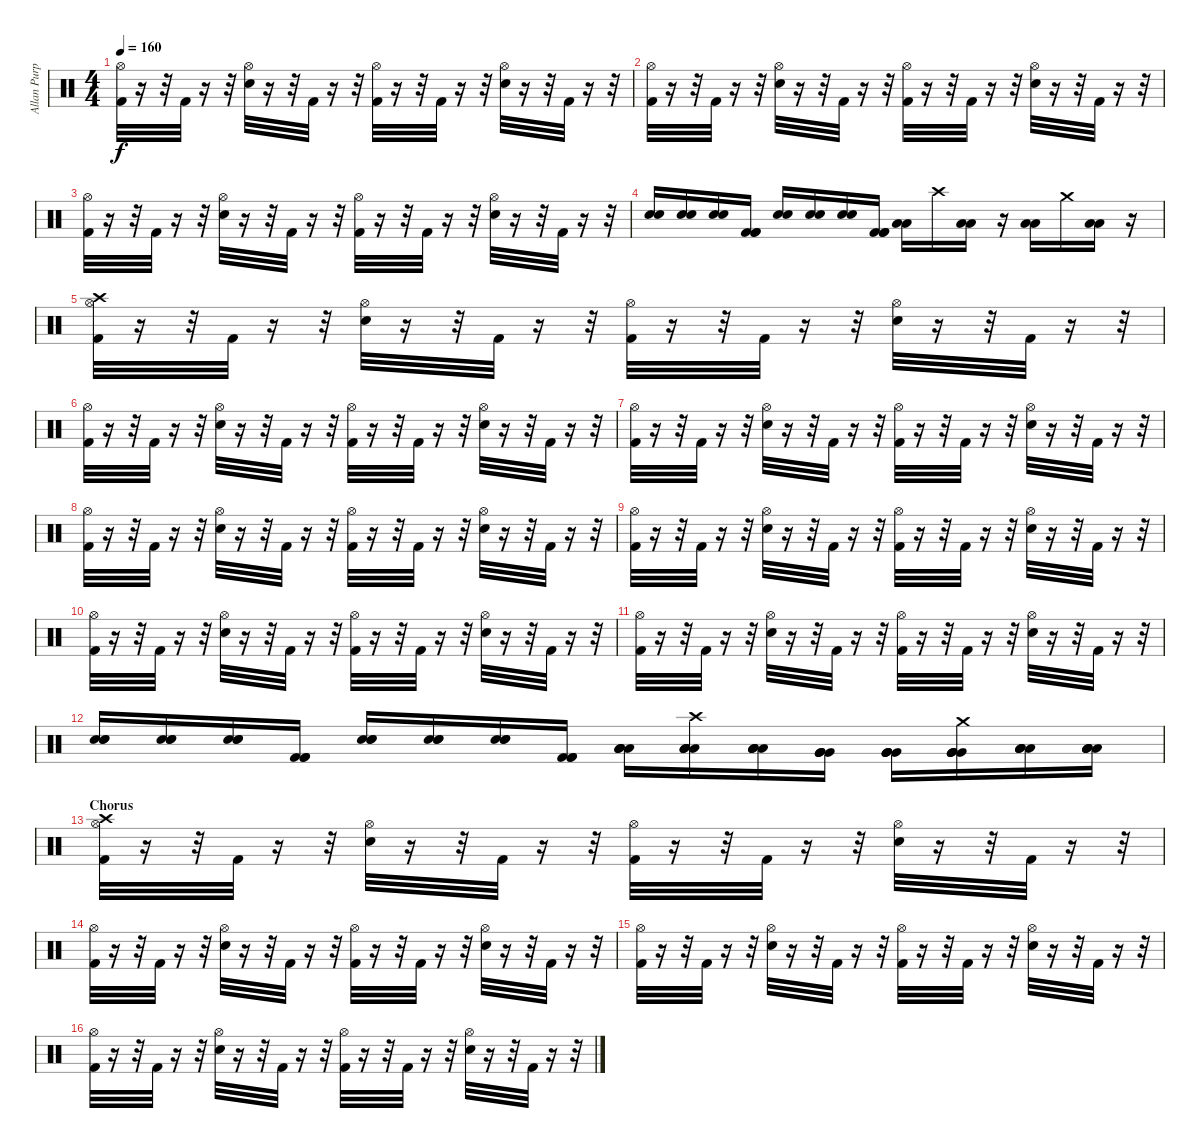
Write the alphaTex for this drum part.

\track ("Allan Purple" "Allan Purp") {instrument percussion}
\staff {score}
\articulation defaults
\ts (4 4)
\tempo 160
\clef neutral
\ks c
("Hi-Hat (open)" "Kick (hit) 2").32{dy f} r.16 r.32 "Kick (hit) 2".32 r.16 r.32 ("Hi-Hat (open)" "Electric Snare (hit)").32 r.16 r.32 "Kick (hit) 2".32 r.16 r.32 ("Hi-Hat (open)" "Kick (hit) 2").32 r.16 r.32 "Kick (hit) 2".32 r.16 r.32 ("Hi-Hat (open)" "Electric Snare (hit)").32 r.16 r.32 "Kick (hit) 2".32 r.16 r.32 |
("Hi-Hat (open)" "Kick (hit) 2").32 r.16 r.32 "Kick (hit) 2".32 r.16 r.32 ("Hi-Hat (open)" "Electric Snare (hit)").32 r.16 r.32 "Kick (hit) 2".32 r.16 r.32 ("Hi-Hat (open)" "Kick (hit) 2").32 r.16 r.32 "Kick (hit) 2".32 r.16 r.32 ("Hi-Hat (open)" "Electric Snare (hit)").32 r.16 r.32 "Kick (hit) 2".32 r.16 r.32 |
("Hi-Hat (open)" "Kick (hit) 2").32 r.16 r.32 "Kick (hit) 2".32 r.16 r.32 ("Hi-Hat (open)" "Electric Snare (hit)").32 r.16 r.32 "Kick (hit) 2".32 r.16 r.32 ("Hi-Hat (open)" "Kick (hit) 2").32 r.16 r.32 "Kick (hit) 2".32 r.16 r.32 ("Hi-Hat (open)" "Electric Snare (hit)").32 r.16 r.32 "Kick (hit) 2".32 r.16 r.32 |
("Electric Snare (hit)" "Electric Snare (hit)").16 ("Electric Snare (hit)" "Electric Snare (hit)").16 ("Electric Snare (hit)" "Electric Snare (hit)").16 ("Kick (hit) 2" "Kick (hit) 2" "Kick (hit) 2").16 ("Electric Snare (hit)" "Electric Snare (hit)").16 ("Electric Snare (hit)" "Electric Snare (hit)").16 ("Electric Snare (hit)" "Electric Snare (hit)").16 ("Kick (hit) 2" "Kick (hit) 2" "Kick (hit) 2").16 ("Low Tom (hit)" "Low Tom (hit)").16 "Crash high (hit)".16 ("Low Tom (hit)" "Low Tom (hit)").16 r.16 ("Low Tom (hit)" "Low Tom (hit)").16 "Crash medium (hit)".16 ("Low Tom (hit)" "Low Tom (hit)").16 r.16 |
("Crash high (hit)" "Hi-Hat (open)" "Kick (hit) 2").32 r.16 r.32 "Kick (hit) 2".32 r.16 r.32 ("Hi-Hat (open)" "Electric Snare (hit)").32 r.16 r.32 "Kick (hit) 2".32 r.16 r.32 ("Hi-Hat (open)" "Kick (hit) 2").32 r.16 r.32 "Kick (hit) 2".32 r.16 r.32 ("Hi-Hat (open)" "Electric Snare (hit)").32 r.16 r.32 "Kick (hit) 2".32 r.16 r.32 |
("Hi-Hat (open)" "Kick (hit) 2").32 r.16 r.32 "Kick (hit) 2".32 r.16 r.32 ("Hi-Hat (open)" "Electric Snare (hit)").32 r.16 r.32 "Kick (hit) 2".32 r.16 r.32 ("Hi-Hat (open)" "Kick (hit) 2").32 r.16 r.32 "Kick (hit) 2".32 r.16 r.32 ("Hi-Hat (open)" "Electric Snare (hit)").32 r.16 r.32 "Kick (hit) 2".32 r.16 r.32 |
("Hi-Hat (open)" "Kick (hit) 2").32 r.16 r.32 "Kick (hit) 2".32 r.16 r.32 ("Hi-Hat (open)" "Electric Snare (hit)").32 r.16 r.32 "Kick (hit) 2".32 r.16 r.32 ("Hi-Hat (open)" "Kick (hit) 2").32 r.16 r.32 "Kick (hit) 2".32 r.16 r.32 ("Hi-Hat (open)" "Electric Snare (hit)").32 r.16 r.32 "Kick (hit) 2".32 r.16 r.32 |
("Hi-Hat (open)" "Kick (hit) 2").32 r.16 r.32 "Kick (hit) 2".32 r.16 r.32 ("Hi-Hat (open)" "Electric Snare (hit)").32 r.16 r.32 "Kick (hit) 2".32 r.16 r.32 ("Hi-Hat (open)" "Kick (hit) 2").32 r.16 r.32 "Kick (hit) 2".32 r.16 r.32 ("Hi-Hat (open)" "Electric Snare (hit)").32 r.16 r.32 "Kick (hit) 2".32 r.16 r.32 |
("Hi-Hat (open)" "Kick (hit) 2").32 r.16 r.32 "Kick (hit) 2".32 r.16 r.32 ("Hi-Hat (open)" "Electric Snare (hit)").32 r.16 r.32 "Kick (hit) 2".32 r.16 r.32 ("Hi-Hat (open)" "Kick (hit) 2").32 r.16 r.32 "Kick (hit) 2".32 r.16 r.32 ("Hi-Hat (open)" "Electric Snare (hit)").32 r.16 r.32 "Kick (hit) 2".32 r.16 r.32 |
("Hi-Hat (open)" "Kick (hit) 2").32 r.16 r.32 "Kick (hit) 2".32 r.16 r.32 ("Hi-Hat (open)" "Electric Snare (hit)").32 r.16 r.32 "Kick (hit) 2".32 r.16 r.32 ("Hi-Hat (open)" "Kick (hit) 2").32 r.16 r.32 "Kick (hit) 2".32 r.16 r.32 ("Hi-Hat (open)" "Electric Snare (hit)").32 r.16 r.32 "Kick (hit) 2".32 r.16 r.32 |
("Hi-Hat (open)" "Kick (hit) 2").32 r.16 r.32 "Kick (hit) 2".32 r.16 r.32 ("Hi-Hat (open)" "Electric Snare (hit)").32 r.16 r.32 "Kick (hit) 2".32 r.16 r.32 ("Hi-Hat (open)" "Kick (hit) 2").32 r.16 r.32 "Kick (hit) 2".32 r.16 r.32 ("Hi-Hat (open)" "Electric Snare (hit)").32 r.16 r.32 "Kick (hit) 2".32 r.16 r.32 |
("Electric Snare (hit)" "Electric Snare (hit)" "Electric Snare (hit)").16 ("Electric Snare (hit)" "Electric Snare (hit)" "Electric Snare (hit)").16 ("Electric Snare (hit)" "Electric Snare (hit)" "Electric Snare (hit)").16 ("Kick (hit) 2" "Kick (hit) 2" "Kick (hit) 2").16 ("Electric Snare (hit)" "Electric Snare (hit)" "Electric Snare (hit)").16 ("Electric Snare (hit)" "Electric Snare (hit)" "Electric Snare (hit)").16 ("Electric Snare (hit)" "Electric Snare (hit)" "Electric Snare (hit)").16 ("Kick (hit) 2" "Kick (hit) 2" "Kick (hit) 2").16 ("Low Tom (hit)" "Low Tom (hit)" "Low Tom (hit)" "Low Tom (hit)").16 ("Crash high (hit)" "Low Tom (hit)" "Low Tom (hit)" "Low Tom (hit)" "Low Tom (hit)").16 ("Low Tom (hit)" "Low Tom (hit)" "Low Tom (hit)" "Low Tom (hit)").16 ("Very Low Tom (hit)" "Very Low Tom (hit)" "Very Low Tom (hit)" "Very Low Tom (hit)").16 ("Very Low Tom (hit)" "Very Low Tom (hit)" "Very Low Tom (hit)" "Very Low Tom (hit)").16 ("Crash medium (hit)" "Very Low Tom (hit)" "Very Low Tom (hit)" "Very Low Tom (hit)" "Very Low Tom (hit)").16 ("Low Floor Tom (hit)" "Low Floor Tom (hit)" "Low Floor Tom (hit)" "Low Floor Tom (hit)").16 ("Low Floor Tom (hit)" "Low Floor Tom (hit)" "Low Floor Tom (hit)" "Low Floor Tom (hit)").16 |
\section ("" "Chorus")
("Crash high (hit)" "Hi-Hat (open)" "Kick (hit) 2").32 r.16 r.32 "Kick (hit) 2".32 r.16 r.32 ("Hi-Hat (open)" "Electric Snare (hit)").32 r.16 r.32 "Kick (hit) 2".32 r.16 r.32 ("Hi-Hat (open)" "Kick (hit) 2").32 r.16 r.32 "Kick (hit) 2".32 r.16 r.32 ("Hi-Hat (open)" "Electric Snare (hit)").32 r.16 r.32 "Kick (hit) 2".32 r.16 r.32 |
("Hi-Hat (open)" "Kick (hit) 2").32 r.16 r.32 "Kick (hit) 2".32 r.16 r.32 ("Hi-Hat (open)" "Electric Snare (hit)").32 r.16 r.32 "Kick (hit) 2".32 r.16 r.32 ("Hi-Hat (open)" "Kick (hit) 2").32 r.16 r.32 "Kick (hit) 2".32 r.16 r.32 ("Hi-Hat (open)" "Electric Snare (hit)").32 r.16 r.32 "Kick (hit) 2".32 r.16 r.32 |
("Hi-Hat (open)" "Kick (hit) 2").32 r.16 r.32 "Kick (hit) 2".32 r.16 r.32 ("Hi-Hat (open)" "Electric Snare (hit)").32 r.16 r.32 "Kick (hit) 2".32 r.16 r.32 ("Hi-Hat (open)" "Kick (hit) 2").32 r.16 r.32 "Kick (hit) 2".32 r.16 r.32 ("Hi-Hat (open)" "Electric Snare (hit)").32 r.16 r.32 "Kick (hit) 2".32 r.16 r.32 |
("Hi-Hat (open)" "Kick (hit) 2").32 r.16 r.32 "Kick (hit) 2".32 r.16 r.32 ("Hi-Hat (open)" "Electric Snare (hit)").32 r.16 r.32 "Kick (hit) 2".32 r.16 r.32 ("Hi-Hat (open)" "Kick (hit) 2").32 r.16 r.32 "Kick (hit) 2".32 r.16 r.32 ("Hi-Hat (open)" "Electric Snare (hit)").32 r.16 r.32 "Kick (hit) 2".32 r.16 r.32
